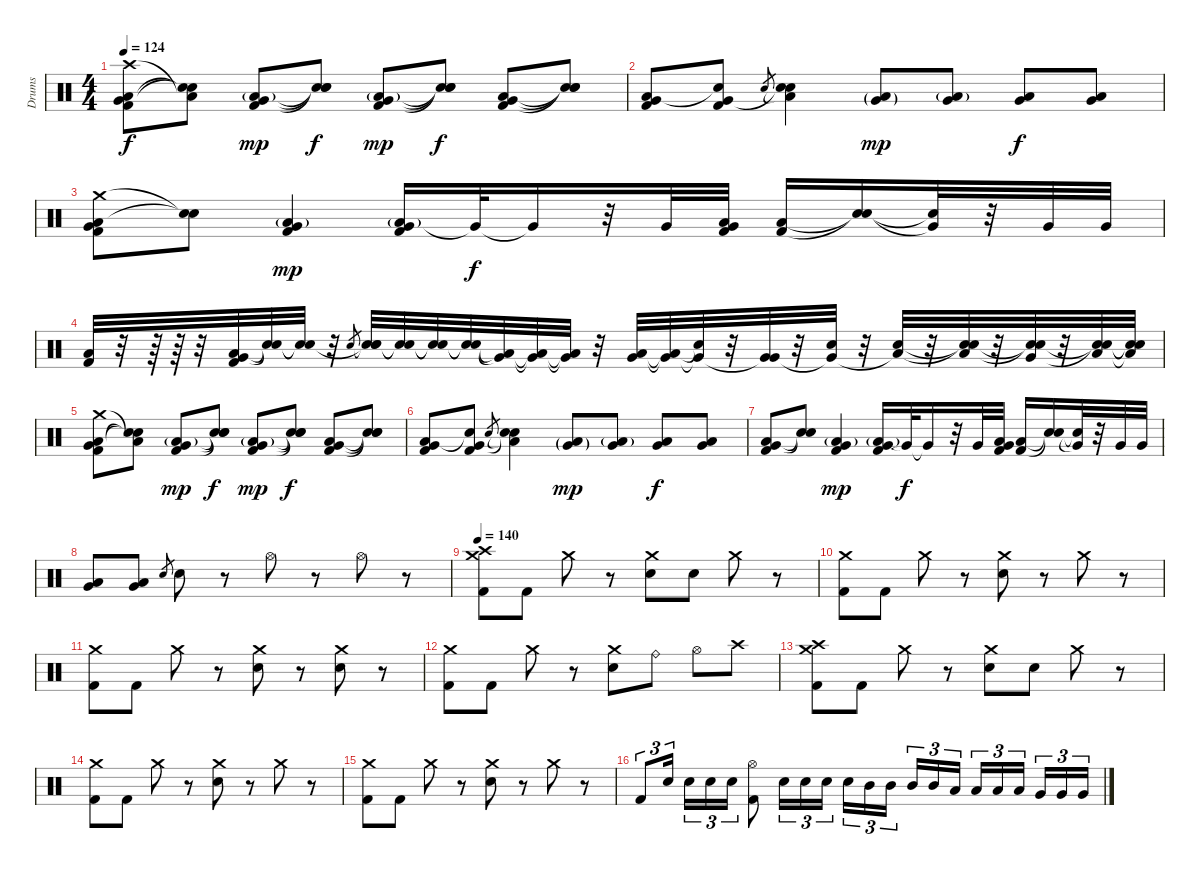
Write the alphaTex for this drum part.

\track ("Drums" "Drums") {instrument percussion}
\staff {score}
\articulation defaults
\ts (4 4)
\tempo 124
\clef neutral
\ks c
("Crash high (hit)" "Low Floor Tom (hit)" "Very Low Tom (hit)" "Kick (hit) 2").8{dy f} ("Low Floor Tom (hit)"{t} "Snare (hit)"{t} "Snare (hit)"{t}).8 ("Low Floor Tom (hit)"{g} "Very Low Tom (hit)" "Kick (hit) 2").8{dy mp} ("Snare (hit)"{t} "Snare (hit)"{t} "Snare (hit)"{t}).8{dy f} ("Low Floor Tom (hit)"{g} "Very Low Tom (hit)" "Kick (hit) 2").8{dy mp} ("Snare (hit)"{t} "Snare (hit)"{t} "Snare (hit)"{t}).8{dy f} ("Low Floor Tom (hit)" "Very Low Tom (hit)" "Kick (hit) 2").8 ("Snare (hit)"{t} "Snare (hit)"{t} "Snare (hit)"{t}).8 |
("Low Floor Tom (hit)" "Very Low Tom (hit)" "Kick (hit) 2").8 ("Snare (hit)"{t} "Very Low Tom (hit)" "Kick (hit) 2").8 "Electric Snare (hit)".8{gr} ("Low Floor Tom (hit)"{t} "Snare (hit)"{t} "Electric Snare (hit)").4 ("Low Floor Tom (hit)"{g} "Very Low Tom (hit)"{g}).8{dy mp} ("Low Floor Tom (hit)"{g} "Very Low Tom (hit)").8 ("Low Floor Tom (hit)" "Very Low Tom (hit)").8{dy f} ("Low Floor Tom (hit)" "Very Low Tom (hit)").8 |
("Crash medium (hit)" "Low Floor Tom (hit)" "Very Low Tom (hit)" "Kick (hit) 2").8 ("Snare (hit)"{t} "Snare (hit)"{t}).8 ("Low Floor Tom (hit)"{g} "Very Low Tom (hit)" "Kick (hit) 2").4{dy mp} ("Low Floor Tom (hit)"{g} "Very Low Tom (hit)" "Kick (hit) 2").16 "Very Low Tom (hit)"{t}.32{dy f} "Very Low Tom (hit)"{t}.16 r.32 "Very Low Tom (hit)".32 ("Low Floor Tom (hit)" "Very Low Tom (hit)" "Kick (hit) 2").32 ("Low Floor Tom (hit)" "Kick (hit) 2").16 ("Snare (hit)"{t} "Snare (hit)"{t}).16 ("Very Low Tom (hit)"{t} "Snare (hit)"{t}).32 r.32 "Very Low Tom (hit)".32 "Very Low Tom (hit)".32 |
("Low Floor Tom (hit)" "Kick (hit) 2").32 r.32 r.64 r.64 r.32 ("Low Floor Tom (hit)" "Very Low Tom (hit)" "Kick (hit) 2").32 ("Snare (hit)"{t} "Snare (hit)"{t}).32 ("Snare (hit)"{t} "Snare (hit)"{t}).32 r.32 "Electric Snare (hit)".8{gr} ("Snare (hit)"{t} "Snare (hit)"{t} "Electric Snare (hit)").32 ("Snare (hit)"{t} "Snare (hit)"{t}).32 ("Snare (hit)"{t} "Snare (hit)"{t}).32 ("Snare (hit)"{t} "Snare (hit)"{t}).32 ("Low Floor Tom (hit)"{t} "Very Low Tom (hit)"{t}).32 ("Low Floor Tom (hit)"{t} "Very Low Tom (hit)"{t}).32 ("Low Floor Tom (hit)"{t} "Very Low Tom (hit)"{t}).32 r.32 ("Low Floor Tom (hit)" "Very Low Tom (hit)").32 ("Low Floor Tom (hit)"{t} "Very Low Tom (hit)"{t}).32 ("Snare (hit)"{t} "Very Low Tom (hit)"{t}).32 r.32 ("Very Low Tom (hit)" "Very Low Tom (hit)"{t}).32 r.32 ("Electric Snare (hit)" "Very Low Tom (hit)"{t}).32 r.32 ("Electric Snare (hit)" "Low Tom (hit)"{t}).32 r.32 ("Snare (hit)"{t} "Snare (hit)"{t} "Low Tom (hit)").32 r.32 ("Snare (hit)"{t} "Very Low Tom (hit)" "Snare (hit)"{t}).32 r.32 ("Low Floor Tom (hit)" "Snare (hit)"{t} "Snare (hit)"{t}).32 ("Low Floor Tom (hit)"{t} "Snare (hit)"{t} "Snare (hit)"{t}).32 |
("Crash medium (hit)" "Low Floor Tom (hit)" "Very Low Tom (hit)" "Kick (hit) 2").8 ("Low Floor Tom (hit)"{t} "Snare (hit)"{t} "Snare (hit)"{t}).8 ("Low Floor Tom (hit)"{g} "Very Low Tom (hit)" "Kick (hit) 2").8{dy mp} ("Snare (hit)"{t} "Snare (hit)"{t} "Snare (hit)"{t}).8{dy f} ("Low Floor Tom (hit)"{g} "Very Low Tom (hit)" "Kick (hit) 2").8{dy mp} ("Snare (hit)"{t} "Snare (hit)"{t} "Snare (hit)"{t}).8{dy f} ("Low Floor Tom (hit)" "Very Low Tom (hit)" "Kick (hit) 2").8 ("Snare (hit)"{t} "Snare (hit)"{t} "Snare (hit)"{t}).8 |
("Low Floor Tom (hit)" "Very Low Tom (hit)" "Kick (hit) 2").8 ("Snare (hit)"{t} "Very Low Tom (hit)" "Kick (hit) 2").8 "Electric Snare (hit)".8{gr} ("Low Floor Tom (hit)"{t} "Snare (hit)"{t} "Electric Snare (hit)").4 ("Low Floor Tom (hit)"{g} "Very Low Tom (hit)"{g}).8{dy mp} ("Low Floor Tom (hit)"{g} "Very Low Tom (hit)").8 ("Low Floor Tom (hit)" "Very Low Tom (hit)").8{dy f} ("Low Floor Tom (hit)" "Very Low Tom (hit)").8 |
("Low Floor Tom (hit)" "Very Low Tom (hit)" "Kick (hit) 2").8 ("Snare (hit)"{t} "Snare (hit)"{t}).8 ("Low Floor Tom (hit)"{g} "Very Low Tom (hit)" "Kick (hit) 2").4{dy mp} ("Low Floor Tom (hit)"{g} "Very Low Tom (hit)" "Kick (hit) 2").16 "Very Low Tom (hit)"{t}.32{dy f} "Very Low Tom (hit)"{t}.16 r.32 "Very Low Tom (hit)".32 ("Low Floor Tom (hit)" "Very Low Tom (hit)" "Kick (hit) 2").32 ("Low Floor Tom (hit)" "Kick (hit) 2").16 ("Snare (hit)"{t} "Snare (hit)"{t}).16 ("Very Low Tom (hit)"{t} "Snare (hit)"{t}).32 r.32 "Very Low Tom (hit)".32 "Very Low Tom (hit)".32 |
("Low Tom (hit)" "Very Low Tom (hit)").8 ("Low Tom (hit)" "Very Low Tom (hit)").8 "Electric Snare (hit)".8{gr} "Electric Snare (hit)".8 r.8 "Hi-Hat (open)".8 r.8 "Hi-Hat (open)".8 r.8 |
\tempo 140
("Crash high (hit)" "Crash medium (hit)" "Kick (hit) 2").8 "Kick (hit) 2".8 "Crash medium (hit)".8 r.8 ("Crash medium (hit)" "Electric Snare (hit)").8 "Electric Snare (hit)".8 "Crash medium (hit)".8 r.8 |
("Crash medium (hit)" "Kick (hit) 2").8 "Kick (hit) 2".8 "Crash medium (hit)".8 r.8 ("Crash medium (hit)" "Electric Snare (hit)").8 r.8 "Crash medium (hit)".8 r.8 |
("Crash medium (hit)" "Kick (hit) 2").8 "Kick (hit) 2".8 "Crash medium (hit)".8 r.8 ("Crash medium (hit)" "Electric Snare (hit)").8 r.8 ("Crash medium (hit)" "Electric Snare (hit)").8 r.8 |
("Crash medium (hit)" "Kick (hit) 2").8 "Kick (hit) 2".8 "Crash medium (hit)".8 r.8 ("Crash medium (hit)" "Electric Snare (hit)").8 "Ride (bell)".8 "Hi-Hat (open)".8 "Crash high (hit)".8 |
("Crash high (hit)" "Crash medium (hit)" "Kick (hit) 2").8 "Kick (hit) 2".8 "Crash medium (hit)".8 r.8 ("Crash medium (hit)" "Electric Snare (hit)").8 "Electric Snare (hit)".8 "Crash medium (hit)".8 r.8 |
("Crash medium (hit)" "Kick (hit) 2").8 "Kick (hit) 2".8 "Crash medium (hit)".8 r.8 ("Crash medium (hit)" "Electric Snare (hit)").8 r.8 "Crash medium (hit)".8 r.8 |
("Crash medium (hit)" "Kick (hit) 2").8 "Kick (hit) 2".8 "Crash medium (hit)".8 r.8 ("Crash medium (hit)" "Electric Snare (hit)").8 r.8 "Crash medium (hit)".8 r.8 |
"Kick (hit) 2".8{tu (3 2)} "Electric Snare (hit)".16{tu (3 2) beam splitsecondary} "Electric Snare (hit)".16{tu (3 2)} "Electric Snare (hit)".16{tu (3 2)} "Electric Snare (hit)".16{tu (3 2)} ("Hi-Hat (open)" "Kick (hit) 2").8 "Electric Snare (hit)".16{tu (3 2)} "Electric Snare (hit)".16{tu (3 2)} "Electric Snare (hit)".16{tu (3 2)} "Electric Snare (hit)".16{tu (3 2)} "Mid Tom (hit)".16{tu (3 2)} "Mid Tom (hit)".16{tu (3 2) beam splitsecondary} "Mid Tom (hit)".16{tu (3 2)} "Mid Tom (hit)".16{tu (3 2)} "Low Tom (hit)".16{tu (3 2)} "Low Tom (hit)".16{tu (3 2)} "Low Tom (hit)".16{tu (3 2)} "Low Tom (hit)".16{tu (3 2) beam splitsecondary} "Very Low Tom (hit)".16{tu (3 2)} "Very Low Tom (hit)".16{tu (3 2)} "Very Low Tom (hit)".16{tu (3 2)}
